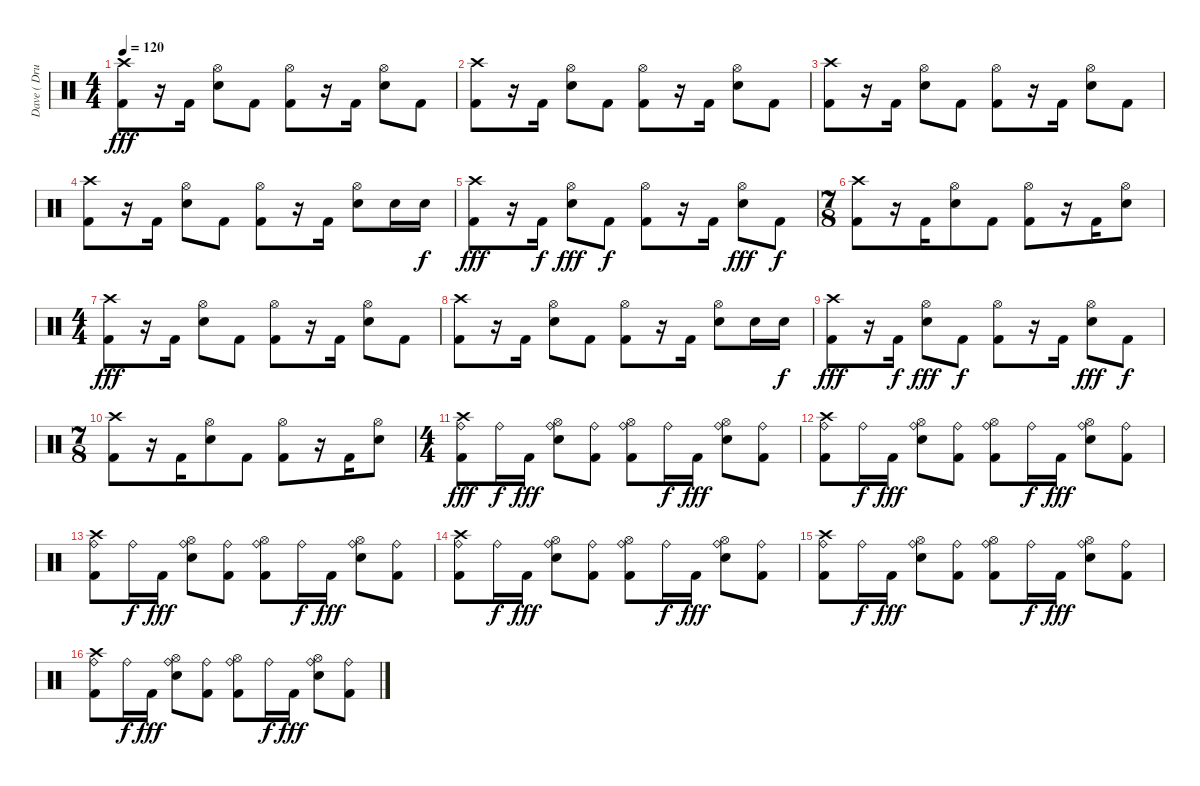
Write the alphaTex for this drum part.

\track ("Dave ( Drumm )" "Dave ( Dru") {instrument percussion}
\staff {score}
\articulation defaults
\ts (4 4)
\tempo 120
\clef neutral
\ks c
("Crash high (hit)" "Kick (hit) 2").8{dy fff} r.16 "Kick (hit) 2".16 ("Hi-Hat (open)" "Snare (hit) 2").8 "Kick (hit) 2".8 ("Hi-Hat (open)" "Kick (hit) 2").8 r.16 "Kick (hit) 2".16 ("Hi-Hat (open)" "Snare (hit) 2").8 "Kick (hit) 2".8 |
("Crash high (hit)" "Kick (hit) 2").8 r.16 "Kick (hit) 2".16 ("Hi-Hat (open)" "Snare (hit) 2").8 "Kick (hit) 2".8 ("Hi-Hat (open)" "Kick (hit) 2").8 r.16 "Kick (hit) 2".16 ("Hi-Hat (open)" "Snare (hit) 2").8 "Kick (hit) 2".8 |
("Crash high (hit)" "Kick (hit) 2").8 r.16 "Kick (hit) 2".16 ("Hi-Hat (open)" "Snare (hit) 2").8 "Kick (hit) 2".8 ("Hi-Hat (open)" "Kick (hit) 2").8 r.16 "Kick (hit) 2".16 ("Hi-Hat (open)" "Snare (hit) 2").8 "Kick (hit) 2".8 |
("Crash high (hit)" "Kick (hit) 2").8 r.16 "Kick (hit) 2".16 ("Hi-Hat (open)" "Snare (hit) 2").8 "Kick (hit) 2".8 ("Hi-Hat (open)" "Kick (hit) 2").8 r.16 "Kick (hit) 2".16 ("Hi-Hat (open)" "Snare (hit) 2").8 "Snare (hit) 2".16 "Snare (hit) 2".16{dy f} |
("Crash high (hit)" "Kick (hit) 2").8{dy fff} r.16 "Kick (hit) 2".16{dy f} ("Hi-Hat (open)" "Snare (hit) 2").8{dy fff} "Kick (hit) 2".8{dy f} ("Hi-Hat (open)" "Kick (hit) 2").8 r.16 "Kick (hit) 2".16 ("Hi-Hat (open)" "Snare (hit) 2").8{dy fff} "Kick (hit) 2".8{dy f} |
\ts (7 8)
("Crash high (hit)" "Kick (hit) 2").8 r.16 "Kick (hit) 2".16 ("Hi-Hat (open)" "Snare (hit) 2").8 "Kick (hit) 2".8 ("Hi-Hat (open)" "Kick (hit) 2").8 r.16 "Kick (hit) 2".16 ("Hi-Hat (open)" "Snare (hit) 2").8 |
\ts (4 4)
("Crash high (hit)" "Kick (hit) 2").8{dy fff} r.16 "Kick (hit) 2".16 ("Hi-Hat (open)" "Snare (hit) 2").8 "Kick (hit) 2".8 ("Hi-Hat (open)" "Kick (hit) 2").8 r.16 "Kick (hit) 2".16 ("Hi-Hat (open)" "Snare (hit) 2").8 "Kick (hit) 2".8 |
("Crash high (hit)" "Kick (hit) 2").8 r.16 "Kick (hit) 2".16 ("Hi-Hat (open)" "Snare (hit) 2").8 "Kick (hit) 2".8 ("Hi-Hat (open)" "Kick (hit) 2").8 r.16 "Kick (hit) 2".16 ("Hi-Hat (open)" "Snare (hit) 2").8 "Snare (hit) 2".16 "Snare (hit) 2".16{dy f} |
("Crash high (hit)" "Kick (hit) 2").8{dy fff} r.16 "Kick (hit) 2".16{dy f} ("Hi-Hat (open)" "Snare (hit) 2").8{dy fff} "Kick (hit) 2".8{dy f} ("Hi-Hat (open)" "Kick (hit) 2").8 r.16 "Kick (hit) 2".16 ("Hi-Hat (open)" "Snare (hit) 2").8{dy fff} "Kick (hit) 2".8{dy f} |
\ts (7 8)
("Crash high (hit)" "Kick (hit) 2").8 r.16 "Kick (hit) 2".16 ("Hi-Hat (open)" "Snare (hit) 2").8 "Kick (hit) 2".8 ("Hi-Hat (open)" "Kick (hit) 2").8 r.16 "Kick (hit) 2".16 ("Hi-Hat (open)" "Snare (hit) 2").8 |
\ts (4 4)
("Crash high (hit)" "Kick (hit) 2" "Ride (bell)").8{dy fff} "Ride (bell)".16{dy f} "Kick (hit) 2".16{dy fff} ("Hi-Hat (open)" "Snare (hit) 2" "Ride (bell)").8 ("Kick (hit) 2" "Ride (bell)").8 ("Hi-Hat (open)" "Kick (hit) 2" "Ride (bell)").8 "Ride (bell)".16{dy f} "Kick (hit) 2".16{dy fff} ("Hi-Hat (open)" "Snare (hit) 2" "Ride (bell)").8 ("Kick (hit) 2" "Ride (bell)").8 |
("Crash high (hit)" "Kick (hit) 2" "Ride (bell)").8 "Ride (bell)".16{dy f} "Kick (hit) 2".16{dy fff} ("Hi-Hat (open)" "Snare (hit) 2" "Ride (bell)").8 ("Kick (hit) 2" "Ride (bell)").8 ("Hi-Hat (open)" "Kick (hit) 2" "Ride (bell)").8 "Ride (bell)".16{dy f} "Kick (hit) 2".16{dy fff} ("Hi-Hat (open)" "Snare (hit) 2" "Ride (bell)").8 ("Kick (hit) 2" "Ride (bell)").8 |
("Crash high (hit)" "Kick (hit) 2" "Ride (bell)").8 "Ride (bell)".16{dy f} "Kick (hit) 2".16{dy fff} ("Hi-Hat (open)" "Snare (hit) 2" "Ride (bell)").8 ("Kick (hit) 2" "Ride (bell)").8 ("Hi-Hat (open)" "Kick (hit) 2" "Ride (bell)").8 "Ride (bell)".16{dy f} "Kick (hit) 2".16{dy fff} ("Hi-Hat (open)" "Snare (hit) 2" "Ride (bell)").8 ("Kick (hit) 2" "Ride (bell)").8 |
("Crash high (hit)" "Kick (hit) 2" "Ride (bell)").8 "Ride (bell)".16{dy f} "Kick (hit) 2".16{dy fff} ("Hi-Hat (open)" "Snare (hit) 2" "Ride (bell)").8 ("Kick (hit) 2" "Ride (bell)").8 ("Hi-Hat (open)" "Kick (hit) 2" "Ride (bell)").8 "Ride (bell)".16{dy f} "Kick (hit) 2".16{dy fff} ("Hi-Hat (open)" "Snare (hit) 2" "Ride (bell)").8 ("Kick (hit) 2" "Ride (bell)").8 |
("Crash high (hit)" "Kick (hit) 2" "Ride (bell)").8 "Ride (bell)".16{dy f} "Kick (hit) 2".16{dy fff} ("Hi-Hat (open)" "Snare (hit) 2" "Ride (bell)").8 ("Kick (hit) 2" "Ride (bell)").8 ("Hi-Hat (open)" "Kick (hit) 2" "Ride (bell)").8 "Ride (bell)".16{dy f} "Kick (hit) 2".16{dy fff} ("Hi-Hat (open)" "Snare (hit) 2" "Ride (bell)").8 ("Kick (hit) 2" "Ride (bell)").8 |
("Crash high (hit)" "Kick (hit) 2" "Ride (bell)").8 "Ride (bell)".16{dy f} "Kick (hit) 2".16{dy fff} ("Hi-Hat (open)" "Snare (hit) 2" "Ride (bell)").8 ("Kick (hit) 2" "Ride (bell)").8 ("Hi-Hat (open)" "Kick (hit) 2" "Ride (bell)").8 "Ride (bell)".16{dy f} "Kick (hit) 2".16{dy fff} ("Hi-Hat (open)" "Snare (hit) 2" "Ride (bell)").8 ("Kick (hit) 2" "Ride (bell)").8
